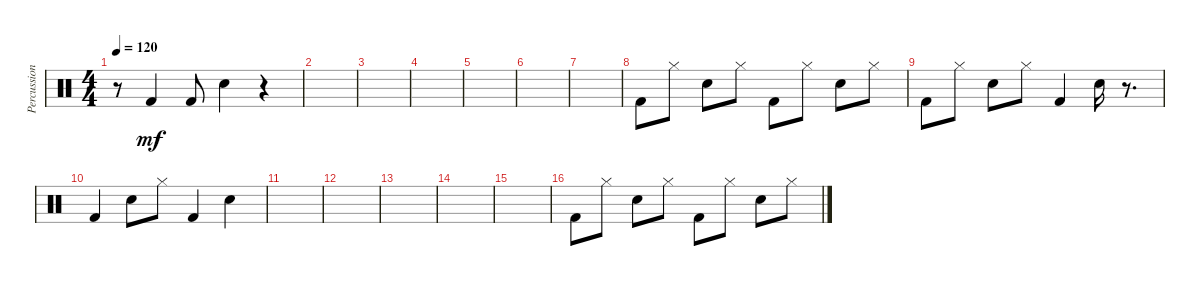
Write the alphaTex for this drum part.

\track ("Percussions 1" "Percussion") {instrument percussion}
\staff {score}
\articulation defaults
\ts (4 4)
\tempo 120
\clef neutral
\ks c
r.8{dy mf} "Kick (hit) 2".4 "Kick (hit) 2".8 "Snare (hit) 2".4 r.4 |
|
|
|
|
|
|
"Kick (hit) 2".8 "Hi-Hat (closed)".8 "Snare (hit) 2".8 "Hi-Hat (closed)".8 "Kick (hit) 2".8 "Hi-Hat (closed)".8 "Snare (hit) 2".8 "Hi-Hat (closed)".8 |
"Kick (hit) 2".8 "Hi-Hat (closed)".8 "Snare (hit) 2".8 "Hi-Hat (closed)".8 "Kick (hit) 2".4 "Snare (hit) 2".16 r.8{d} |
"Kick (hit) 2".4 "Snare (hit) 2".8 "Hi-Hat (closed)".8 "Kick (hit) 2".4 "Snare (hit) 2".4 |
|
|
|
|
|
"Kick (hit) 2".8 "Hi-Hat (closed)".8 "Snare (hit) 2".8 "Hi-Hat (closed)".8 "Kick (hit) 2".8 "Hi-Hat (closed)".8 "Snare (hit) 2".8 "Hi-Hat (closed)".8
